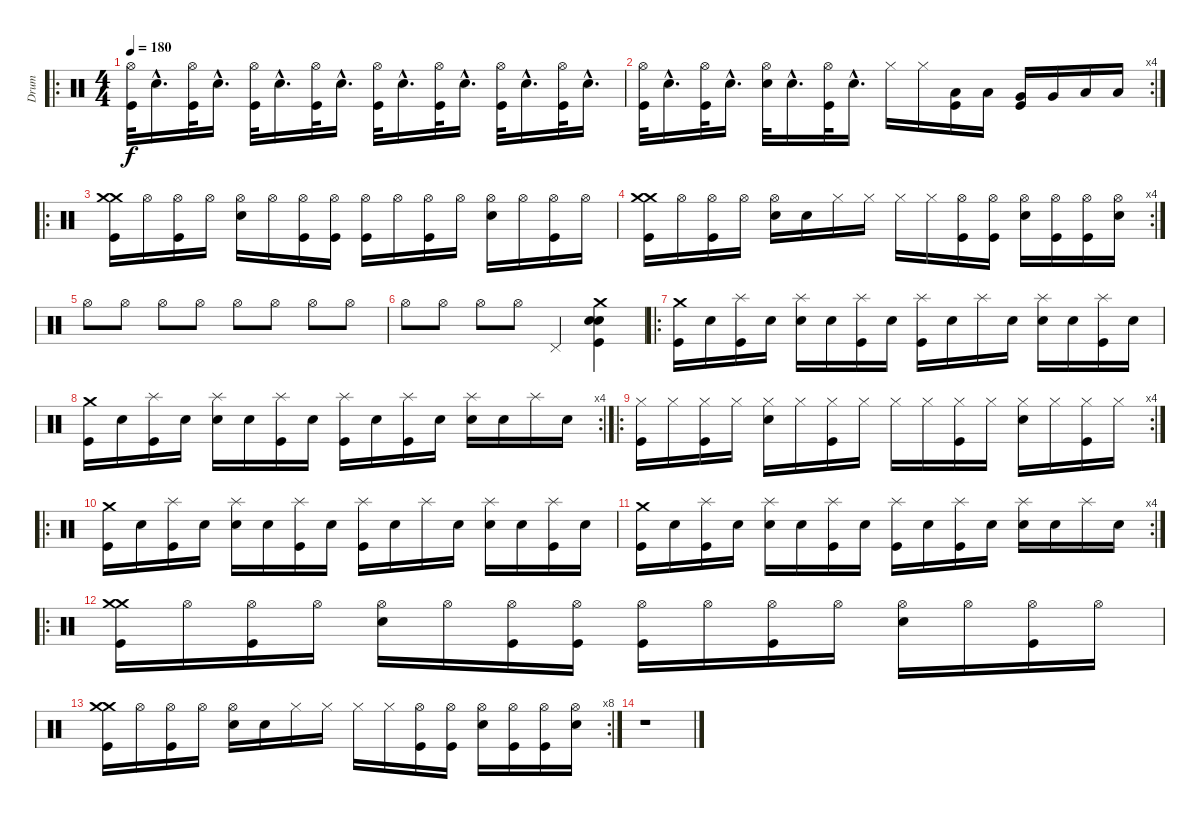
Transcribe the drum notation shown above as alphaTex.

\track ("Drum" "Drum") {instrument percussion}
\staff {score}
\articulation defaults
\ro
\ts (4 4)
\tempo 180
\clef neutral
\ks c
("Hi-Hat (open)" "Kick (hit)").32{dy f} "Snare (hit)"{hac}.16{d} ("Hi-Hat (open)" "Kick (hit)").32 "Snare (hit)"{hac}.16{d} ("Hi-Hat (open)" "Kick (hit)").32 "Snare (hit)"{hac}.16{d} ("Hi-Hat (open)" "Kick (hit)").32 "Snare (hit)"{hac}.16{d} ("Hi-Hat (open)" "Kick (hit)").32 "Snare (hit)"{hac}.16{d} ("Hi-Hat (open)" "Kick (hit)").32 "Snare (hit)"{hac}.16{d} ("Hi-Hat (open)" "Kick (hit)").32 "Snare (hit)"{hac}.16{d} ("Hi-Hat (open)" "Kick (hit)").32 "Snare (hit)"{hac}.16{d} |
\rc 4
("Hi-Hat (open)" "Kick (hit)").32 "Snare (hit)"{hac}.16{d} ("Hi-Hat (open)" "Kick (hit)").32 "Snare (hit)"{hac}.16{d} ("Hi-Hat (open)" "Snare (hit) 2").32 "Snare (hit)"{hac}.16{d} ("Hi-Hat (open)" "Kick (hit)").32 "Snare (hit)"{hac}.16{d} "Hi-Hat (closed)".16 "Hi-Hat (closed)".16 ("Low Tom (hit)" "Kick (hit)").16 "Low Tom (hit)".16 ("Very Low Tom (hit)" "Kick (hit)").16 "Very Low Tom (hit)".16 "Low Floor Tom (hit)".16 "Low Floor Tom (hit)".16 |
\ro
("Crash medium (hit)" "Crash medium (hit)" "Kick (hit)").16 "Hi-Hat (open)".16 ("Hi-Hat (open)" "Kick (hit)").16 "Hi-Hat (open)".16 ("Hi-Hat (open)" "Snare (hit) 2").16 "Hi-Hat (open)".16 ("Hi-Hat (open)" "Kick (hit)").16 ("Hi-Hat (open)" "Kick (hit)").16 ("Hi-Hat (open)" "Kick (hit)").16 "Hi-Hat (open)".16 ("Hi-Hat (open)" "Kick (hit)").16 "Hi-Hat (open)".16 ("Hi-Hat (open)" "Snare (hit) 2").16 "Hi-Hat (open)".16 ("Hi-Hat (open)" "Kick (hit)").16 "Hi-Hat (open)".16 |
\rc 4
("Crash medium (hit)" "Crash medium (hit)" "Kick (hit)").16 "Hi-Hat (open)".16 ("Hi-Hat (open)" "Kick (hit)").16 "Hi-Hat (open)".16 ("Hi-Hat (open)" "Snare (hit) 2").16 "Snare (hit)".16 "Hi-Hat (closed)".16 "Hi-Hat (closed)".16 "Hi-Hat (closed)".16 "Hi-Hat (closed)".16 ("Hi-Hat (open)" "Kick (hit)").16 ("Hi-Hat (open)" "Kick (hit)").16 ("Hi-Hat (open)" "Snare (hit) 2").16 ("Hi-Hat (open)" "Kick (hit)").16 ("Hi-Hat (open)" "Kick (hit)").16 ("Hi-Hat (open)" "Snare (hit) 2").16 |
"Hi-Hat (open)".8 "Hi-Hat (open)".8 "Hi-Hat (open)".8 "Hi-Hat (open)".8 "Hi-Hat (open)".8 "Hi-Hat (open)".8 "Hi-Hat (open)".8 "Hi-Hat (open)".8 |
"Hi-Hat (open)".8 "Hi-Hat (open)".8 "Hi-Hat (open)".8 "Hi-Hat (open)".8 "Pedal Hi-Hat (hit)".4 ("Crash medium (hit)" "Snare (hit) 2" "Snare (hit) 2" "Kick (hit)").4 |
\ro
("Crash medium (hit)" "Kick (hit)").16 "Snare (hit)".16 ("Splash (hit)" "Kick (hit)").16 "Snare (hit)".16 ("Splash (hit)" "Snare (hit) 2").16 "Snare (hit)".16 ("Splash (hit)" "Kick (hit)").16 "Snare (hit)".16 ("Splash (hit)" "Kick (hit)").16 "Snare (hit)".16 "Splash (hit)".16 "Snare (hit)".16 ("Splash (hit)" "Snare (hit) 2").16 "Snare (hit)".16 ("Splash (hit)" "Kick (hit)").16 "Snare (hit)".16 |
\rc 4
("Crash medium (hit)" "Kick (hit)").16 "Snare (hit)".16 ("Splash (hit)" "Kick (hit)").16 "Snare (hit)".16 ("Splash (hit)" "Snare (hit) 2").16 "Snare (hit)".16 ("Splash (hit)" "Kick (hit)").16 "Snare (hit)".16 ("Splash (hit)" "Kick (hit)").16 "Snare (hit)".16 ("Splash (hit)" "Kick (hit)").16 "Snare (hit)".16 ("Splash (hit)" "Snare (hit) 2").16 "Snare (hit)".16 "Splash (hit)".16 "Snare (hit)".16 |
\ro
\rc 4
("Hi-Hat (closed)" "Kick (hit)").16 "Hi-Hat (closed)".16 ("Hi-Hat (closed)" "Kick (hit)").16 "Hi-Hat (closed)".16 ("Hi-Hat (closed)" "Snare (hit) 2").16 "Hi-Hat (closed)".16 ("Hi-Hat (closed)" "Kick (hit)").16 "Hi-Hat (closed)".16 "Hi-Hat (closed)".16 "Hi-Hat (closed)".16 ("Hi-Hat (closed)" "Kick (hit)").16 "Hi-Hat (closed)".16 ("Hi-Hat (closed)" "Snare (hit) 2").16 "Hi-Hat (closed)".16 ("Hi-Hat (closed)" "Kick (hit)").16 "Hi-Hat (closed)".16 |
\ro
("Crash medium (hit)" "Kick (hit)").16 "Snare (hit)".16 ("Splash (hit)" "Kick (hit)").16 "Snare (hit)".16 ("Splash (hit)" "Snare (hit) 2").16 "Snare (hit)".16 ("Splash (hit)" "Kick (hit)").16 "Snare (hit)".16 ("Splash (hit)" "Kick (hit)").16 "Snare (hit)".16 "Splash (hit)".16 "Snare (hit)".16 ("Splash (hit)" "Snare (hit) 2").16 "Snare (hit)".16 ("Splash (hit)" "Kick (hit)").16 "Snare (hit)".16 |
\rc 4
("Crash medium (hit)" "Kick (hit)").16 "Snare (hit)".16 ("Splash (hit)" "Kick (hit)").16 "Snare (hit)".16 ("Splash (hit)" "Snare (hit) 2").16 "Snare (hit)".16 ("Splash (hit)" "Kick (hit)").16 "Snare (hit)".16 ("Splash (hit)" "Kick (hit)").16 "Snare (hit)".16 ("Splash (hit)" "Kick (hit)").16 "Snare (hit)".16 ("Splash (hit)" "Snare (hit) 2").16 "Snare (hit)".16 "Splash (hit)".16 "Snare (hit)".16 |
\ro
("Crash medium (hit)" "Crash medium (hit)" "Kick (hit)").16 "Hi-Hat (open)".16 ("Hi-Hat (open)" "Kick (hit)").16 "Hi-Hat (open)".16 ("Hi-Hat (open)" "Snare (hit) 2").16 "Hi-Hat (open)".16 ("Hi-Hat (open)" "Kick (hit)").16 ("Hi-Hat (open)" "Kick (hit)").16 ("Hi-Hat (open)" "Kick (hit)").16 "Hi-Hat (open)".16 ("Hi-Hat (open)" "Kick (hit)").16 "Hi-Hat (open)".16 ("Hi-Hat (open)" "Snare (hit) 2").16 "Hi-Hat (open)".16 ("Hi-Hat (open)" "Kick (hit)").16 "Hi-Hat (open)".16 |
\rc 8
("Crash medium (hit)" "Crash medium (hit)" "Kick (hit)").16 "Hi-Hat (open)".16 ("Hi-Hat (open)" "Kick (hit)").16 "Hi-Hat (open)".16 ("Hi-Hat (open)" "Snare (hit) 2").16 "Snare (hit)".16 "Hi-Hat (closed)".16 "Hi-Hat (closed)".16 "Hi-Hat (closed)".16 "Hi-Hat (closed)".16 ("Hi-Hat (open)" "Kick (hit)").16 ("Hi-Hat (open)" "Kick (hit)").16 ("Hi-Hat (open)" "Snare (hit) 2").16 ("Hi-Hat (open)" "Kick (hit)").16 ("Hi-Hat (open)" "Kick (hit)").16 ("Hi-Hat (open)" "Snare (hit) 2").16 |
r.1
